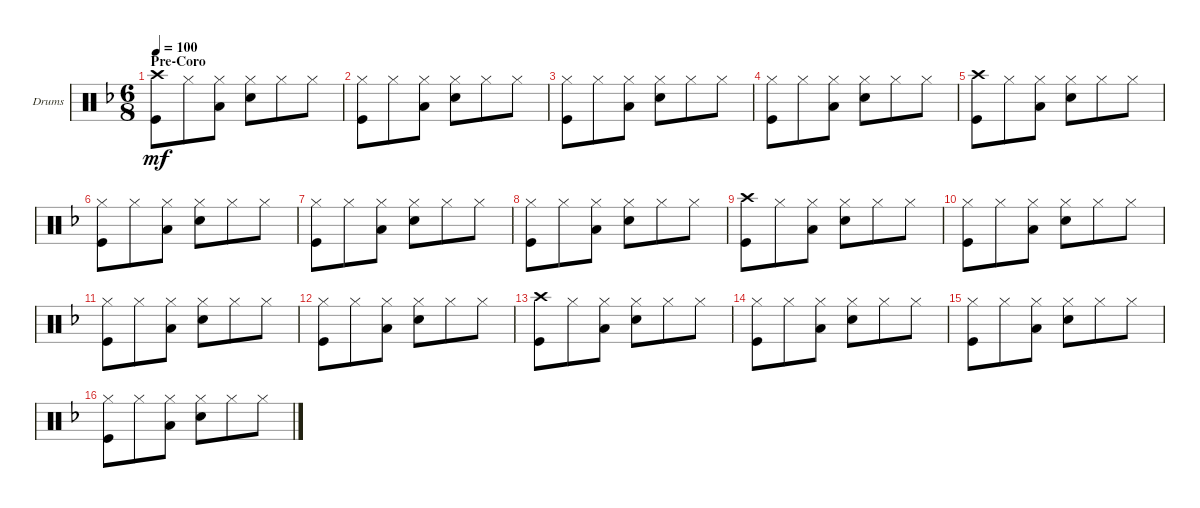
\defaultSystemsLayout 4
\bracketExtendMode groupsimilarinstruments
\firstSystemTrackNameOrientation horizontal
\otherSystemsTrackNameOrientation horizontal
\track ("Drumkit" "Drums") {instrument percussion}
\staff {score}
\articulation defaults
\ts (6 8)
\section ("" "Pre-Coro")
\tempo 100
\clef neutral
\ks dminor
("Kick (hit)" "Crash high (hit)").8{dy mf} "Hi-Hat (closed)".8 ("Hi-Hat (closed)" "Low Tom (hit)").8 ("Hi-Hat (closed)" "Snare (hit) 2").8 "Hi-Hat (closed)".8 "Hi-Hat (closed)".8 |
("Kick (hit)" "Hi-Hat (closed)").8 "Hi-Hat (closed)".8 ("Hi-Hat (closed)" "Low Tom (hit)").8 ("Hi-Hat (closed)" "Snare (hit) 2").8 "Hi-Hat (closed)".8 "Hi-Hat (closed)".8 |
("Kick (hit)" "Hi-Hat (closed)").8 "Hi-Hat (closed)".8 ("Hi-Hat (closed)" "Low Tom (hit)").8 ("Hi-Hat (closed)" "Snare (hit) 2").8 "Hi-Hat (closed)".8 "Hi-Hat (closed)".8 |
("Kick (hit)" "Hi-Hat (closed)").8 "Hi-Hat (closed)".8 ("Hi-Hat (closed)" "Low Tom (hit)").8 ("Hi-Hat (closed)" "Snare (hit) 2").8 "Hi-Hat (closed)".8 "Hi-Hat (closed)".8 |
("Kick (hit)" "Crash high (hit)").8 "Hi-Hat (closed)".8 ("Hi-Hat (closed)" "Low Tom (hit)").8 ("Hi-Hat (closed)" "Snare (hit) 2").8 "Hi-Hat (closed)".8 "Hi-Hat (closed)".8 |
("Kick (hit)" "Hi-Hat (closed)").8 "Hi-Hat (closed)".8 ("Hi-Hat (closed)" "Low Tom (hit)").8 ("Hi-Hat (closed)" "Snare (hit) 2").8 "Hi-Hat (closed)".8 "Hi-Hat (closed)".8 |
("Kick (hit)" "Hi-Hat (closed)").8 "Hi-Hat (closed)".8 ("Hi-Hat (closed)" "Low Tom (hit)").8 ("Hi-Hat (closed)" "Snare (hit) 2").8 "Hi-Hat (closed)".8 "Hi-Hat (closed)".8 |
("Kick (hit)" "Hi-Hat (closed)").8 "Hi-Hat (closed)".8 ("Hi-Hat (closed)" "Low Tom (hit)").8 ("Hi-Hat (closed)" "Snare (hit) 2").8 "Hi-Hat (closed)".8 "Hi-Hat (closed)".8 |
("Kick (hit)" "Crash high (hit)").8 "Hi-Hat (closed)".8 ("Hi-Hat (closed)" "Low Tom (hit)").8 ("Hi-Hat (closed)" "Snare (hit) 2").8 "Hi-Hat (closed)".8 "Hi-Hat (closed)".8 |
("Kick (hit)" "Hi-Hat (closed)").8 "Hi-Hat (closed)".8 ("Hi-Hat (closed)" "Low Tom (hit)").8 ("Hi-Hat (closed)" "Snare (hit) 2").8 "Hi-Hat (closed)".8 "Hi-Hat (closed)".8 |
("Kick (hit)" "Hi-Hat (closed)").8 "Hi-Hat (closed)".8 ("Hi-Hat (closed)" "Low Tom (hit)").8 ("Hi-Hat (closed)" "Snare (hit) 2").8 "Hi-Hat (closed)".8 "Hi-Hat (closed)".8 |
("Kick (hit)" "Hi-Hat (closed)").8 "Hi-Hat (closed)".8 ("Hi-Hat (closed)" "Low Tom (hit)").8 ("Hi-Hat (closed)" "Snare (hit) 2").8 "Hi-Hat (closed)".8 "Hi-Hat (closed)".8 |
("Kick (hit)" "Crash high (hit)").8 "Hi-Hat (closed)".8 ("Hi-Hat (closed)" "Low Tom (hit)").8 ("Hi-Hat (closed)" "Snare (hit) 2").8 "Hi-Hat (closed)".8 "Hi-Hat (closed)".8 |
("Kick (hit)" "Hi-Hat (closed)").8 "Hi-Hat (closed)".8 ("Hi-Hat (closed)" "Low Tom (hit)").8 ("Hi-Hat (closed)" "Snare (hit) 2").8 "Hi-Hat (closed)".8 "Hi-Hat (closed)".8 |
("Kick (hit)" "Hi-Hat (closed)").8 "Hi-Hat (closed)".8 ("Hi-Hat (closed)" "Low Tom (hit)").8 ("Hi-Hat (closed)" "Snare (hit) 2").8 "Hi-Hat (closed)".8 "Hi-Hat (closed)".8 |
("Kick (hit)" "Hi-Hat (closed)").8 "Hi-Hat (closed)".8 ("Hi-Hat (closed)" "Low Tom (hit)").8 ("Hi-Hat (closed)" "Snare (hit) 2").8 "Hi-Hat (closed)".8 "Hi-Hat (closed)".8
